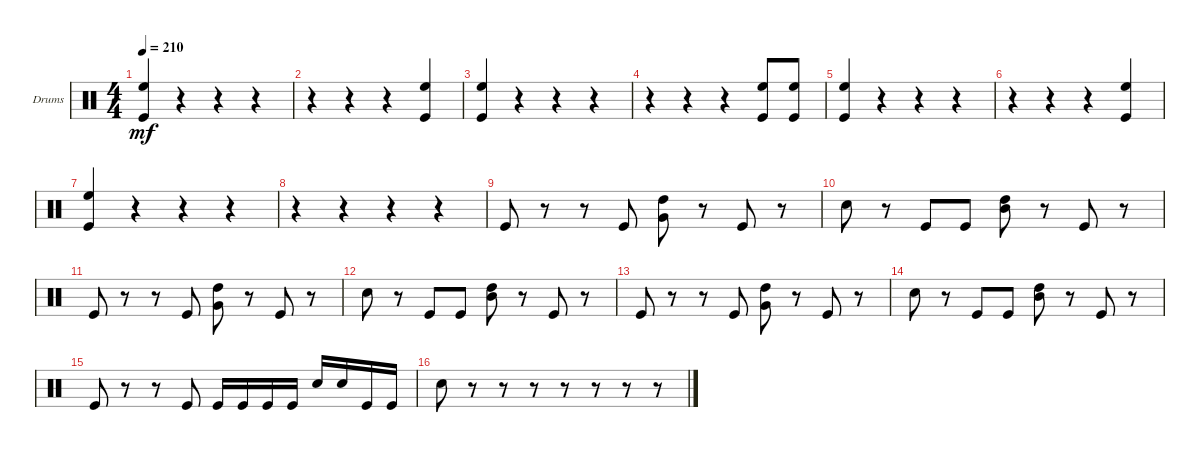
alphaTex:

\bracketExtendMode groupsimilarinstruments
\firstSystemTrackNameOrientation horizontal
\otherSystemsTrackNameOrientation horizontal
\track ("Drumkit" "Drums") {instrument percussion}
\staff {score}
\articulation defaults
\ts (4 4)
\tempo 210
\clef neutral
\ks c
("Kick (hit)" "High Floor Tom (hit)").4{dy mf} r.4 r.4 r.4 |
r.4 r.4 r.4 ("Kick (hit)" "High Floor Tom (hit)").4 |
("Kick (hit)" "High Floor Tom (hit)").4 r.4 r.4 r.4 |
r.4 r.4 r.4 ("Kick (hit)" "High Floor Tom (hit)").8 ("Kick (hit)" "High Floor Tom (hit)").8 |
("Kick (hit)" "High Floor Tom (hit)").4 r.4 r.4 r.4 |
r.4 r.4 r.4 ("Kick (hit)" "High Floor Tom (hit)").4 |
("Kick (hit)" "High Floor Tom (hit)").4 r.4 r.4 r.4 |
r.4 r.4 r.4 r.4 |
"Kick (hit)".8 r.8 r.8 "Kick (hit)".8 ("Very Low Tom (hit)" "High Tom (hit)").8 r.8 "Kick (hit)".8 r.8 |
"Snare (hit) 2".8 r.8 "Kick (hit)".8 "Kick (hit)".8 ("High Tom (hit)" "Mid Tom (hit)").8 r.8 "Kick (hit)".8 r.8 |
"Kick (hit)".8 r.8 r.8 "Kick (hit)".8 ("Very Low Tom (hit)" "High Tom (hit)").8 r.8 "Kick (hit)".8 r.8 |
"Snare (hit) 2".8 r.8 "Kick (hit)".8 "Kick (hit)".8 ("High Tom (hit)" "Mid Tom (hit)").8 r.8 "Kick (hit)".8 r.8 |
"Kick (hit)".8 r.8 r.8 "Kick (hit)".8 ("Very Low Tom (hit)" "High Tom (hit)").8 r.8 "Kick (hit)".8 r.8 |
"Snare (hit) 2".8 r.8 "Kick (hit)".8 "Kick (hit)".8 ("High Tom (hit)" "Mid Tom (hit)").8 r.8 "Kick (hit)".8 r.8 |
"Kick (hit)".8 r.8 r.8 "Kick (hit)".8 "Kick (hit)".16 "Kick (hit)".16 "Kick (hit)".16 "Kick (hit)".16 "Snare (hit) 2".16 "Snare (hit) 2".16 "Kick (hit)".16 "Kick (hit)".16 |
"Snare (hit) 2".8 r.8 r.8 r.8 r.8 r.8 r.8 r.8
